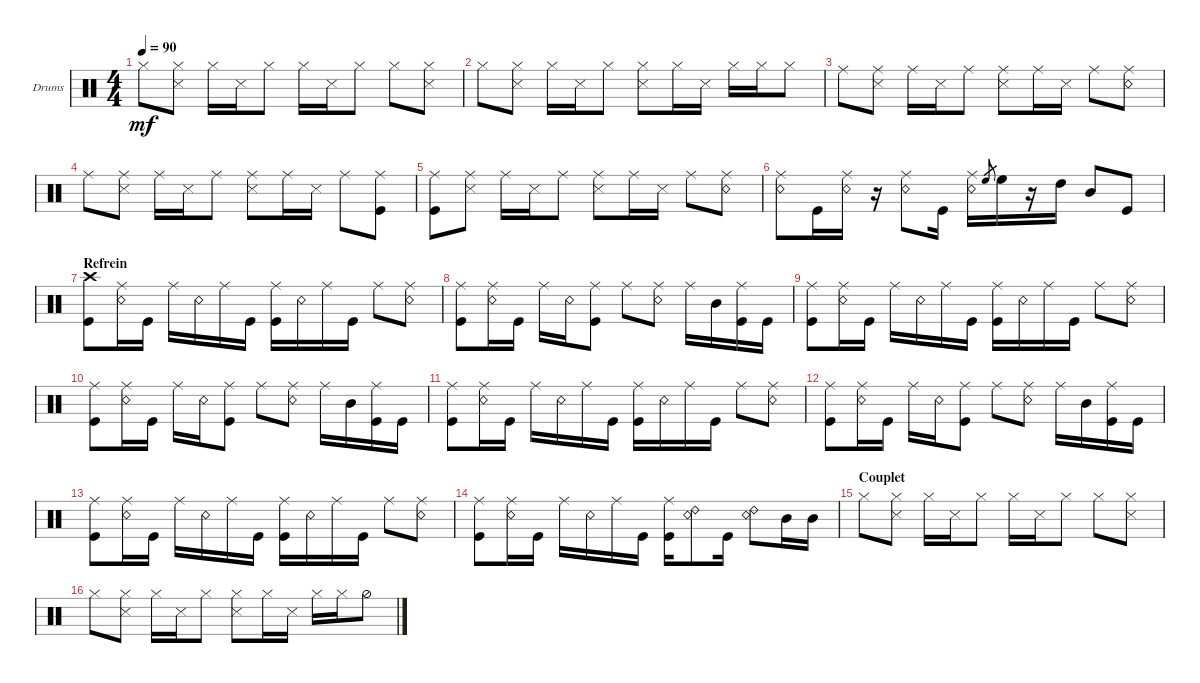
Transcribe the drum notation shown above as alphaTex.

\defaultSystemsLayout 4
\bracketExtendMode groupsimilarinstruments
\firstSystemTrackNameOrientation horizontal
\otherSystemsTrackNameOrientation horizontal
\track ("Drumkit" "Drums") {instrument percussion}
\staff {score}
\articulation defaults
\ts (4 4)
\tempo 90
\clef neutral
\ks c "Hi-Hat (closed)".8{dy mf}
("Hi-Hat (closed)" "Snare (side stick) 3").8 "Hi-Hat (closed)".16 "Snare (side stick) 3".16 "Hi-Hat (closed)".8 "Hi-Hat (closed)".16 "Snare (side stick) 3".16 "Hi-Hat (closed)".8 "Hi-Hat (closed)".8 ("Hi-Hat (closed)" "Snare (side stick) 3").8 |
"Hi-Hat (closed)".8 ("Hi-Hat (closed)" "Snare (side stick) 3").8 "Hi-Hat (closed)".16 "Snare (side stick) 3".16 "Hi-Hat (closed)".8 ("Hi-Hat (closed)" "Snare (side stick) 3").8 "Hi-Hat (closed)".16 "Snare (side stick) 3".16 "Hi-Hat (closed)".16 "Hi-Hat (closed)".16 "Hi-Hat (closed)".8 |
"Ride (middle)".8 ("Ride (middle)" "Snare (side stick) 3").8 "Ride (middle)".16 "Snare (side stick) 3".16 "Ride (middle)".8 ("Snare (side stick) 3" "Ride (middle)").8 "Ride (middle)".16 "Snare (side stick) 3".16 "Ride (middle)".8 ("Ride (middle)" "Snare (rim shot)").8 |
"Ride (middle)".8 ("Ride (middle)" "Snare (side stick) 3").8 "Ride (middle)".16 "Snare (side stick) 3".16 "Ride (middle)".8 ("Snare (side stick) 3" "Ride (middle)").8 "Ride (middle)".16 "Snare (side stick) 3".16 "Ride (middle)".8 ("Ride (middle)" "Kick (hit)").8 |
("Ride (middle)" "Kick (hit)").8 ("Ride (middle)" "Snare (side stick) 3").8 "Ride (middle)".16 "Snare (side stick) 3".16 "Ride (middle)".8 ("Snare (side stick) 3" "Ride (middle)").8 "Ride (middle)".16 "Snare (side stick) 3".16 "Ride (middle)".8 ("Ride (middle)" "Snare (rim shot)").8 |
("Ride (middle)" "Snare (rim shot)").8 "Kick (hit)".16 ("Snare (rim shot)" "Ride (middle)").16 r.16 ("Ride (middle)" "Snare (rim shot)").8 "Kick (hit)".16 ("Snare (rim shot)" "Ride (middle)").16 "High Floor Tom (hit)".8{gr} "High Floor Tom (hit)".16 r.16 "High Tom (hit)".16 "Mid Tom (hit)".8 "Kick (hit)".8 |
\section ("" "Refrein")
("Kick (hit)" "Crash high (hit)").8 ("Ride (middle)" "Snare (rim shot)").16 "Kick (hit)".16 "Ride (middle)".16 "Snare (rim shot)".16 "Ride (middle)".16 "Kick (hit)".16 ("Kick (hit)" "Ride (middle)").16 "Snare (rim shot)".16 "Ride (middle)".16 "Kick (hit)".16 "Ride (middle)".8 ("Snare (rim shot)" "Ride (middle)").8 |
("Ride (middle)" "Kick (hit)").8 ("Ride (middle)" "Snare (rim shot)").16 "Kick (hit)".16 "Ride (middle)".16 "Snare (rim shot)".16 ("Ride (middle)" "Kick (hit)").8 "Ride (middle)".8 ("Ride (middle)" "Snare (rim shot)").8 "Ride (middle)".16 "Mid Tom (hit)".16 ("Kick (hit)" "Ride (middle)").16 "Kick (hit)".16 |
("Kick (hit)" "Ride (middle)").8 ("Ride (middle)" "Snare (rim shot)").16 "Kick (hit)".16 "Ride (middle)".16 "Snare (rim shot)".16 "Ride (middle)".16 "Kick (hit)".16 ("Kick (hit)" "Ride (middle)").16 "Snare (rim shot)".16 "Ride (middle)".16 "Kick (hit)".16 "Ride (middle)".8 ("Snare (rim shot)" "Ride (middle)").8 |
("Ride (middle)" "Kick (hit)").8 ("Ride (middle)" "Snare (rim shot)").16 "Kick (hit)".16 "Ride (middle)".16 "Snare (rim shot)".16 ("Ride (middle)" "Kick (hit)").8 "Ride (middle)".8 ("Ride (middle)" "Snare (rim shot)").8 "Ride (middle)".16 "Mid Tom (hit)".16 ("Kick (hit)" "Ride (middle)").16 "Kick (hit)".16 |
("Kick (hit)" "Ride (middle)").8 ("Ride (middle)" "Snare (rim shot)").16 "Kick (hit)".16 "Ride (middle)".16 "Snare (rim shot)".16 "Ride (middle)".16 "Kick (hit)".16 ("Kick (hit)" "Ride (middle)").16 "Snare (rim shot)".16 "Ride (middle)".16 "Kick (hit)".16 "Ride (middle)".8 ("Snare (rim shot)" "Ride (middle)").8 |
("Ride (middle)" "Kick (hit)").8 ("Ride (middle)" "Snare (rim shot)").16 "Kick (hit)".16 "Ride (middle)".16 "Snare (rim shot)".16 ("Ride (middle)" "Kick (hit)").8 "Ride (middle)".8 ("Ride (middle)" "Snare (rim shot)").8 "Ride (middle)".16 "Mid Tom (hit)".16 ("Kick (hit)" "Ride (middle)").16 "Kick (hit)".16 |
("Kick (hit)" "Ride (middle)").8 ("Ride (middle)" "Snare (rim shot)").16 "Kick (hit)".16 "Ride (middle)".16 "Snare (rim shot)".16 "Ride (middle)".16 "Kick (hit)".16 ("Kick (hit)" "Ride (middle)").16 "Snare (rim shot)".16 "Ride (middle)".16 "Kick (hit)".16 "Ride (middle)".8 ("Snare (rim shot)" "Ride (middle)").8 |
("Ride (middle)" "Kick (hit)").8 ("Ride (middle)" "Snare (rim shot)").16 "Kick (hit)".16 "Ride (middle)".16 "Snare (rim shot)".16 "Ride (middle)".16 "Kick (hit)".16 ("Ride (middle)" "Kick (hit)").16 ("Snare (rim shot)" "Ride (bell) 2").8 "Kick (hit)".16 ("Ride (bell) 2" "Snare (rim shot)").8 "Mid Tom (hit)".16 "Mid Tom (hit)".16 |
\section ("" "Couplet")
"Hi-Hat (closed)".8 ("Hi-Hat (closed)" "Snare (side stick) 3").8 "Hi-Hat (closed)".16 "Snare (side stick) 3".16 "Hi-Hat (closed)".8 "Hi-Hat (closed)".16 "Snare (side stick) 3".16 "Hi-Hat (closed)".8 "Hi-Hat (closed)".8 ("Hi-Hat (closed)" "Snare (side stick) 3").8 |
"Hi-Hat (closed)".8 ("Hi-Hat (closed)" "Snare (side stick) 3").8 "Hi-Hat (closed)".16 "Snare (side stick) 3".16 "Hi-Hat (closed)".8 ("Hi-Hat (closed)" "Snare (side stick) 3").8 "Hi-Hat (closed)".16 "Snare (side stick) 3".16 "Hi-Hat (closed)".16 "Hi-Hat (closed)".16 "Hi-Hat (half)".8
